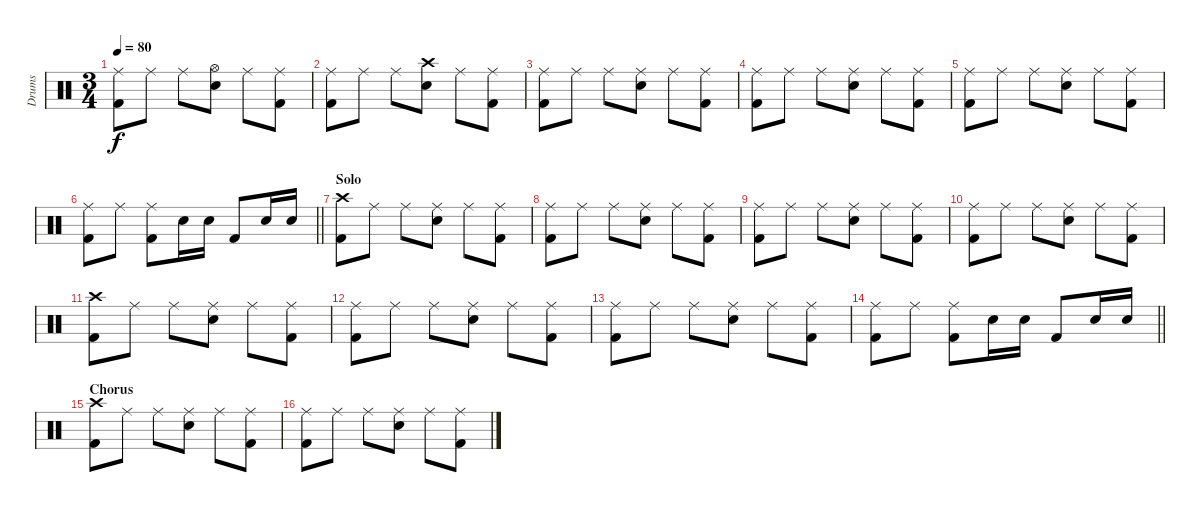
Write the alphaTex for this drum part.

\track ("Drums" "Drums") {instrument percussion}
\staff {score}
\articulation defaults
\ts (3 4)
\tempo 80
\clef neutral
\ks c
("Ride (middle)" "Kick (hit) 2").8{dy f} "Ride (middle)".8 "Ride (middle)".8 ("Hi-Hat (open)" "Electric Snare (hit)").8 "Ride (middle)".8 ("Ride (middle)" "Kick (hit) 2").8 |
("Ride (middle)" "Kick (hit) 2").8 "Ride (middle)".8 "Ride (middle)".8 ("Crash high (hit)" "Electric Snare (hit)").8 "Ride (middle)".8 ("Ride (middle)" "Kick (hit) 2").8 |
("Ride (middle)" "Kick (hit) 2").8 "Ride (middle)".8 "Ride (middle)".8 ("Ride (middle)" "Electric Snare (hit)").8 "Ride (middle)".8 ("Ride (middle)" "Kick (hit) 2").8 |
("Ride (middle)" "Kick (hit) 2").8 "Ride (middle)".8 "Ride (middle)".8 ("Ride (middle)" "Electric Snare (hit)").8 "Ride (middle)".8 ("Ride (middle)" "Kick (hit) 2").8 |
("Ride (middle)" "Kick (hit) 2").8 "Ride (middle)".8 "Ride (middle)".8 ("Ride (middle)" "Electric Snare (hit)").8 "Ride (middle)".8 ("Ride (middle)" "Kick (hit) 2").8 |
\barLineRight lightlight
("Ride (middle)" "Kick (hit) 2").8 "Ride (middle)".8 ("Ride (middle)" "Kick (hit) 2").8 "Electric Snare (hit)".16 "Electric Snare (hit)".16 "Kick (hit) 2".8 "Electric Snare (hit)".16 "Electric Snare (hit)".16 |
\section ("" "Solo")
("Crash high (hit)" "Kick (hit) 2").8 "Ride (middle)".8 "Ride (middle)".8 ("Ride (middle)" "Electric Snare (hit)").8 "Ride (middle)".8 ("Ride (middle)" "Kick (hit) 2").8 |
("Ride (middle)" "Kick (hit) 2").8 "Ride (middle)".8 "Ride (middle)".8 ("Ride (middle)" "Electric Snare (hit)").8 "Ride (middle)".8 ("Ride (middle)" "Kick (hit) 2").8 |
("Ride (middle)" "Kick (hit) 2").8 "Ride (middle)".8 "Ride (middle)".8 ("Ride (middle)" "Electric Snare (hit)").8 "Ride (middle)".8 ("Ride (middle)" "Kick (hit) 2").8 |
("Ride (middle)" "Kick (hit) 2").8 "Ride (middle)".8 "Ride (middle)".8 ("Ride (middle)" "Electric Snare (hit)").8 "Ride (middle)".8 ("Ride (middle)" "Kick (hit) 2").8 |
("Crash high (hit)" "Kick (hit) 2").8 "Ride (middle)".8 "Ride (middle)".8 ("Ride (middle)" "Electric Snare (hit)").8 "Ride (middle)".8 ("Ride (middle)" "Kick (hit) 2").8 |
("Ride (middle)" "Kick (hit) 2").8 "Ride (middle)".8 "Ride (middle)".8 ("Ride (middle)" "Electric Snare (hit)").8 "Ride (middle)".8 ("Ride (middle)" "Kick (hit) 2").8 |
("Ride (middle)" "Kick (hit) 2").8 "Ride (middle)".8 "Ride (middle)".8 ("Ride (middle)" "Electric Snare (hit)").8 "Ride (middle)".8 ("Ride (middle)" "Kick (hit) 2").8 |
\barLineRight lightlight
("Ride (middle)" "Kick (hit) 2").8 "Ride (middle)".8 ("Ride (middle)" "Kick (hit) 2").8 "Electric Snare (hit)".16 "Electric Snare (hit)".16 "Kick (hit) 2".8 "Electric Snare (hit)".16 "Electric Snare (hit)".16 |
\section ("" "Chorus")
("Crash high (hit)" "Kick (hit) 2").8 "Ride (middle)".8 "Ride (middle)".8 ("Ride (middle)" "Electric Snare (hit)").8 "Ride (middle)".8 ("Ride (middle)" "Kick (hit) 2").8 |
("Ride (middle)" "Kick (hit) 2").8 "Ride (middle)".8 "Ride (middle)".8 ("Ride (middle)" "Electric Snare (hit)").8 "Ride (middle)".8 ("Ride (middle)" "Kick (hit) 2").8
